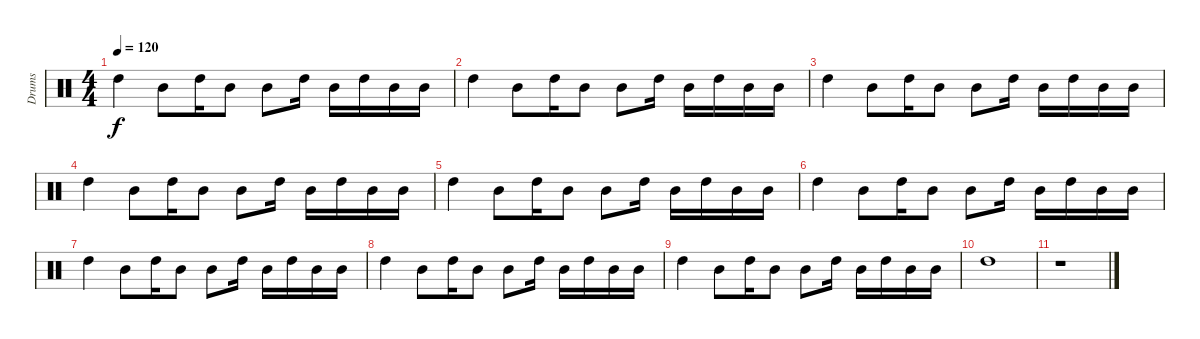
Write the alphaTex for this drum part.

\track ("Drums" "Drums") {instrument percussion}
\staff {score}
\articulation defaults
\ts (4 4)
\tempo 120
\clef neutral
\ks c "High Tom (hit)".4{dy f} "Mid Tom (hit)".8 "High Tom (hit)".16 "Mid Tom (hit)".8 "Mid Tom (hit)".8 "High Tom (hit)".16 "Mid Tom (hit)".16 "High Tom (hit)".16 "Mid Tom (hit)".16 "Mid Tom (hit)".16
|
"High Tom (hit)".4 "Mid Tom (hit)".8 "High Tom (hit)".16 "Mid Tom (hit)".8 "Mid Tom (hit)".8 "High Tom (hit)".16 "Mid Tom (hit)".16 "High Tom (hit)".16 "Mid Tom (hit)".16 "Mid Tom (hit)".16 |
"High Tom (hit)".4 "Mid Tom (hit)".8 "High Tom (hit)".16 "Mid Tom (hit)".8 "Mid Tom (hit)".8 "High Tom (hit)".16 "Mid Tom (hit)".16 "High Tom (hit)".16 "Mid Tom (hit)".16 "Mid Tom (hit)".16 |
"High Tom (hit)".4 "Mid Tom (hit)".8 "High Tom (hit)".16 "Mid Tom (hit)".8 "Mid Tom (hit)".8 "High Tom (hit)".16 "Mid Tom (hit)".16 "High Tom (hit)".16 "Mid Tom (hit)".16 "Mid Tom (hit)".16 |
"High Tom (hit)".4 "Mid Tom (hit)".8 "High Tom (hit)".16 "Mid Tom (hit)".8 "Mid Tom (hit)".8 "High Tom (hit)".16 "Mid Tom (hit)".16 "High Tom (hit)".16 "Mid Tom (hit)".16 "Mid Tom (hit)".16 |
"High Tom (hit)".4 "Mid Tom (hit)".8 "High Tom (hit)".16 "Mid Tom (hit)".8 "Mid Tom (hit)".8 "High Tom (hit)".16 "Mid Tom (hit)".16 "High Tom (hit)".16 "Mid Tom (hit)".16 "Mid Tom (hit)".16 |
"High Tom (hit)".4 "Mid Tom (hit)".8 "High Tom (hit)".16 "Mid Tom (hit)".8 "Mid Tom (hit)".8 "High Tom (hit)".16 "Mid Tom (hit)".16 "High Tom (hit)".16 "Mid Tom (hit)".16 "Mid Tom (hit)".16 |
"High Tom (hit)".4 "Mid Tom (hit)".8 "High Tom (hit)".16 "Mid Tom (hit)".8 "Mid Tom (hit)".8 "High Tom (hit)".16 "Mid Tom (hit)".16 "High Tom (hit)".16 "Mid Tom (hit)".16 "Mid Tom (hit)".16 |
"High Tom (hit)".4 "Mid Tom (hit)".8 "High Tom (hit)".16 "Mid Tom (hit)".8 "Mid Tom (hit)".8 "High Tom (hit)".16 "Mid Tom (hit)".16 "High Tom (hit)".16 "Mid Tom (hit)".16 "Mid Tom (hit)".16 |
"High Tom (hit)".1 |
r.1
